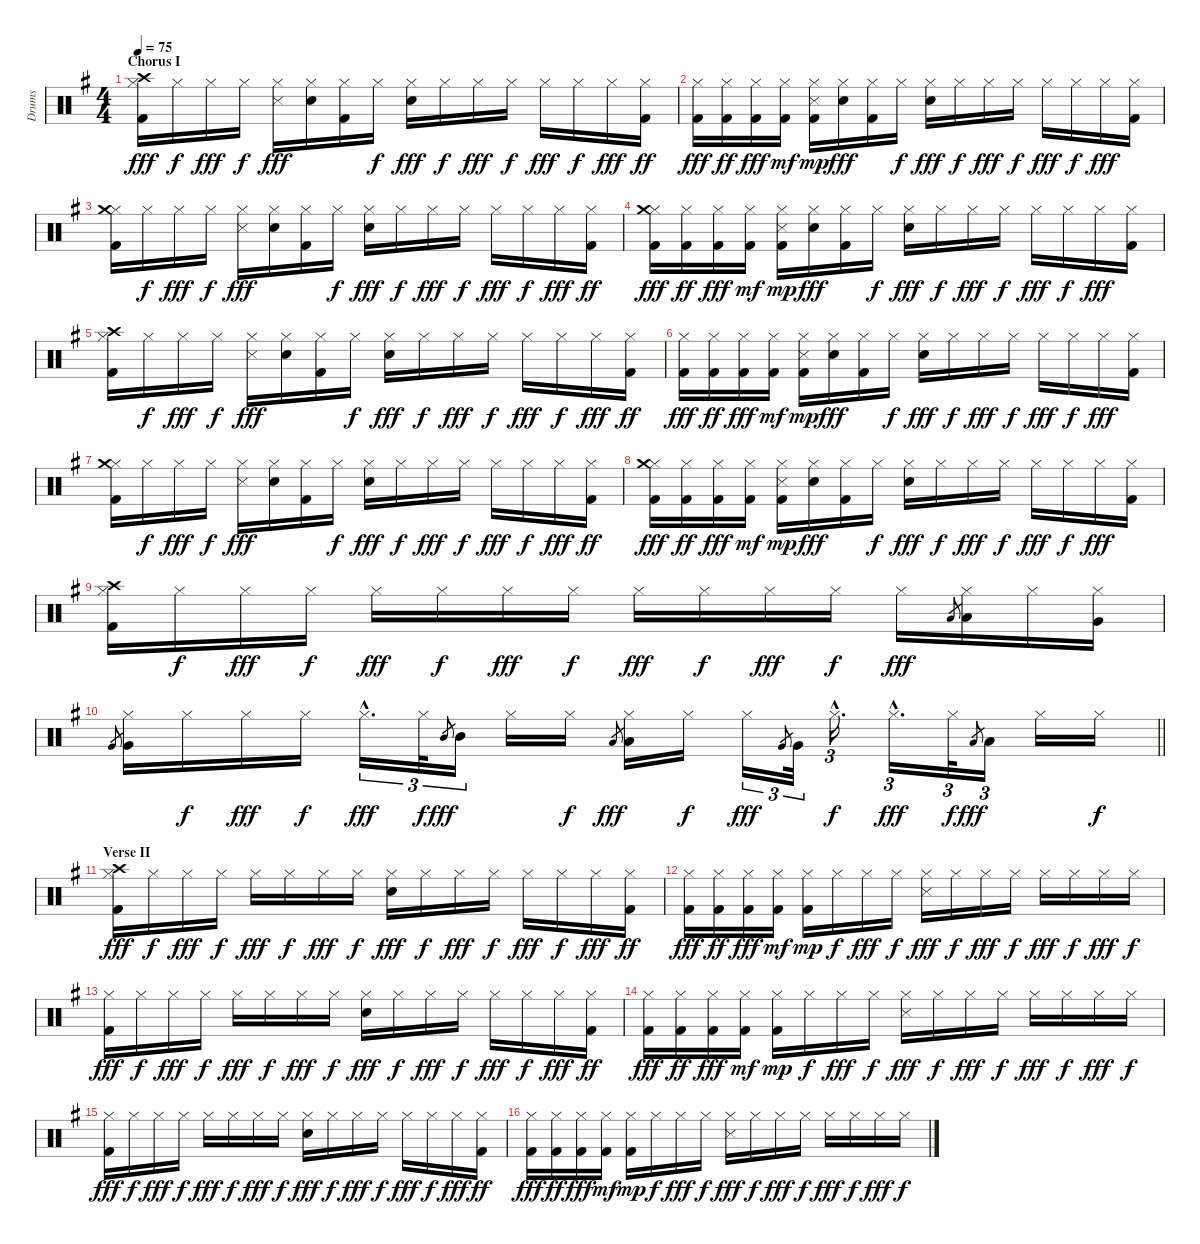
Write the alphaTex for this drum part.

\track ("Drums" "Drums") {instrument percussion}
\staff {score}
\articulation defaults
\ts (4 4)
\section ("" "Chorus I")
\tempo 75
\clef neutral
\ks g
("Hi-Hat (closed)" "Crash high (hit)" "Kick (hit) 2").16{dy fff} "Hi-Hat (closed)".16{dy f} "Hi-Hat (closed)".16{dy fff} "Hi-Hat (closed)".16{dy f} ("Hi-Hat (closed)" "Snare (side stick) 3").16{dy fff} ("Hi-Hat (closed)" "Snare (hit) 2").16 ("Hi-Hat (closed)" "Kick (hit) 2").16 "Hi-Hat (closed)".16{dy f} ("Hi-Hat (closed)" "Snare (hit) 2").16{dy fff} "Hi-Hat (closed)".16{dy f} "Hi-Hat (closed)".16{dy fff} "Hi-Hat (closed)".16{dy f} "Hi-Hat (closed)".16{dy fff} "Hi-Hat (closed)".16{dy f} "Hi-Hat (closed)".16{dy fff} ("Hi-Hat (closed)" "Kick (hit) 2").16{dy ff} |
("Hi-Hat (closed)" "Kick (hit) 2").16{dy fff} ("Hi-Hat (closed)" "Kick (hit) 2").16{dy ff} ("Hi-Hat (closed)" "Kick (hit) 2").16{dy fff} ("Hi-Hat (closed)" "Kick (hit) 2").16{dy mf} ("Hi-Hat (closed)" "Snare (side stick) 3" "Kick (hit) 2").16{dy mp} ("Hi-Hat (closed)" "Snare (hit) 2").16{dy fff} ("Hi-Hat (closed)" "Kick (hit) 2").16 "Hi-Hat (closed)".16{dy f} ("Hi-Hat (closed)" "Snare (hit) 2").16{dy fff} "Hi-Hat (closed)".16{dy f} "Hi-Hat (closed)".16{dy fff} "Hi-Hat (closed)".16{dy f} "Hi-Hat (closed)".16{dy fff} "Hi-Hat (closed)".16{dy f} "Hi-Hat (closed)".16{dy fff} ("Hi-Hat (closed)" "Kick (hit) 2").16 |
("Hi-Hat (closed)" "Crash medium (hit)" "Kick (hit) 2").16 "Hi-Hat (closed)".16{dy f} "Hi-Hat (closed)".16{dy fff} "Hi-Hat (closed)".16{dy f} ("Hi-Hat (closed)" "Snare (side stick) 3").16{dy fff} ("Hi-Hat (closed)" "Snare (hit) 2").16 ("Hi-Hat (closed)" "Kick (hit) 2").16 "Hi-Hat (closed)".16{dy f} ("Hi-Hat (closed)" "Snare (hit) 2").16{dy fff} "Hi-Hat (closed)".16{dy f} "Hi-Hat (closed)".16{dy fff} "Hi-Hat (closed)".16{dy f} "Hi-Hat (closed)".16{dy fff} "Hi-Hat (closed)".16{dy f} "Hi-Hat (closed)".16{dy fff} ("Hi-Hat (closed)" "Kick (hit) 2").16{dy ff} |
("Hi-Hat (closed)" "Crash medium (hit)" "Kick (hit) 2").16{dy fff} ("Hi-Hat (closed)" "Kick (hit) 2").16{dy ff} ("Hi-Hat (closed)" "Kick (hit) 2").16{dy fff} ("Hi-Hat (closed)" "Kick (hit) 2").16{dy mf} ("Hi-Hat (closed)" "Snare (side stick) 3" "Kick (hit) 2").16{dy mp} ("Hi-Hat (closed)" "Snare (hit) 2").16{dy fff} ("Hi-Hat (closed)" "Kick (hit) 2").16 "Hi-Hat (closed)".16{dy f} ("Hi-Hat (closed)" "Snare (hit) 2").16{dy fff} "Hi-Hat (closed)".16{dy f} "Hi-Hat (closed)".16{dy fff} "Hi-Hat (closed)".16{dy f} "Hi-Hat (closed)".16{dy fff} "Hi-Hat (closed)".16{dy f} "Hi-Hat (closed)".16{dy fff} ("Hi-Hat (closed)" "Kick (hit) 2").16 |
("Hi-Hat (closed)" "Crash high (hit)" "Kick (hit) 2").16 "Hi-Hat (closed)".16{dy f} "Hi-Hat (closed)".16{dy fff} "Hi-Hat (closed)".16{dy f} ("Hi-Hat (closed)" "Snare (side stick) 3").16{dy fff} ("Hi-Hat (closed)" "Snare (hit) 2").16 ("Hi-Hat (closed)" "Kick (hit) 2").16 "Hi-Hat (closed)".16{dy f} ("Hi-Hat (closed)" "Snare (hit) 2").16{dy fff} "Hi-Hat (closed)".16{dy f} "Hi-Hat (closed)".16{dy fff} "Hi-Hat (closed)".16{dy f} "Hi-Hat (closed)".16{dy fff} "Hi-Hat (closed)".16{dy f} "Hi-Hat (closed)".16{dy fff} ("Hi-Hat (closed)" "Kick (hit) 2").16{dy ff} |
("Hi-Hat (closed)" "Kick (hit) 2").16{dy fff} ("Hi-Hat (closed)" "Kick (hit) 2").16{dy ff} ("Hi-Hat (closed)" "Kick (hit) 2").16{dy fff} ("Hi-Hat (closed)" "Kick (hit) 2").16{dy mf} ("Hi-Hat (closed)" "Snare (side stick) 3" "Kick (hit) 2").16{dy mp} ("Hi-Hat (closed)" "Snare (hit) 2").16{dy fff} ("Hi-Hat (closed)" "Kick (hit) 2").16 "Hi-Hat (closed)".16{dy f} ("Hi-Hat (closed)" "Snare (hit) 2").16{dy fff} "Hi-Hat (closed)".16{dy f} "Hi-Hat (closed)".16{dy fff} "Hi-Hat (closed)".16{dy f} "Hi-Hat (closed)".16{dy fff} "Hi-Hat (closed)".16{dy f} "Hi-Hat (closed)".16{dy fff} ("Hi-Hat (closed)" "Kick (hit) 2").16 |
("Hi-Hat (closed)" "Crash medium (hit)" "Kick (hit) 2").16 "Hi-Hat (closed)".16{dy f} "Hi-Hat (closed)".16{dy fff} "Hi-Hat (closed)".16{dy f} ("Hi-Hat (closed)" "Snare (side stick) 3").16{dy fff} ("Hi-Hat (closed)" "Snare (hit) 2").16 ("Hi-Hat (closed)" "Kick (hit) 2").16 "Hi-Hat (closed)".16{dy f} ("Hi-Hat (closed)" "Snare (hit) 2").16{dy fff} "Hi-Hat (closed)".16{dy f} "Hi-Hat (closed)".16{dy fff} "Hi-Hat (closed)".16{dy f} "Hi-Hat (closed)".16{dy fff} "Hi-Hat (closed)".16{dy f} "Hi-Hat (closed)".16{dy fff} ("Hi-Hat (closed)" "Kick (hit) 2").16{dy ff} |
("Hi-Hat (closed)" "Crash medium (hit)" "Kick (hit) 2").16{dy fff} ("Hi-Hat (closed)" "Kick (hit) 2").16{dy ff} ("Hi-Hat (closed)" "Kick (hit) 2").16{dy fff} ("Hi-Hat (closed)" "Kick (hit) 2").16{dy mf} ("Hi-Hat (closed)" "Snare (side stick) 3" "Kick (hit) 2").16{dy mp} ("Hi-Hat (closed)" "Snare (hit) 2").16{dy fff} ("Hi-Hat (closed)" "Kick (hit) 2").16 "Hi-Hat (closed)".16{dy f} ("Hi-Hat (closed)" "Snare (hit) 2").16{dy fff} "Hi-Hat (closed)".16{dy f} "Hi-Hat (closed)".16{dy fff} "Hi-Hat (closed)".16{dy f} "Hi-Hat (closed)".16{dy fff} "Hi-Hat (closed)".16{dy f} "Hi-Hat (closed)".16{dy fff} ("Hi-Hat (closed)" "Kick (hit) 2").16 |
("Hi-Hat (closed)" "Crash high (hit)" "Kick (hit) 2").16 "Hi-Hat (closed)".16{dy f} "Hi-Hat (closed)".16{dy fff} "Hi-Hat (closed)".16{dy f} "Hi-Hat (closed)".16{dy fff} "Hi-Hat (closed)".16{dy f} "Hi-Hat (closed)".16{dy fff} "Hi-Hat (closed)".16{dy f} "Hi-Hat (closed)".16{dy fff} "Hi-Hat (closed)".16{dy f} "Hi-Hat (closed)".16{dy fff} "Hi-Hat (closed)".16{dy f} "Hi-Hat (closed)".16{dy fff} "Low Tom (hit)".8{gr} ("Hi-Hat (closed)" "Low Tom (hit)").16 "Hi-Hat (closed)".16 ("Hi-Hat (closed)" "Very Low Tom (hit)").16 |
\barLineRight lightlight "Very Low Tom (hit)".8{gr}
("Hi-Hat (closed)" "Very Low Tom (hit)").16 "Hi-Hat (closed)".16{dy f} "Hi-Hat (closed)".16{dy fff} "Hi-Hat (closed)".16{dy f} "Hi-Hat (closed)"{hac}.16{d tu (3 2) dy fff} "Hi-Hat (closed)".32{tu (3 2) dy f} "Mid Tom (hit)".8{gr dy fff} "Mid Tom (hit)".16{tu (3 2)} "Hi-Hat (closed)".16 "Hi-Hat (closed)".16{dy f} "Low Tom (hit)".8{gr dy fff} ("Hi-Hat (closed)" "Low Tom (hit)").16 "Hi-Hat (closed)".16{dy f} "Hi-Hat (closed)".16{tu (3 2) dy fff} "Very Low Tom (hit)".8{gr} "Very Low Tom (hit)".32{tu (3 2)} "Hi-Hat (closed)"{hac}.16{d tu (3 2) dy f} "Hi-Hat (closed)"{hac}.16{d tu (3 2) dy fff} "Hi-Hat (closed)".32{tu (3 2) dy f} "Low Floor Tom (hit)".8{gr dy fff} "Low Floor Tom (hit)".16{tu (3 2)} "Hi-Hat (closed)".16 "Hi-Hat (closed)".16{dy f} |
\section ("" "Verse II")
("Hi-Hat (closed)" "Crash high (hit)" "Kick (hit) 2").16{dy fff} "Hi-Hat (closed)".16{dy f} "Hi-Hat (closed)".16{dy fff} "Hi-Hat (closed)".16{dy f} "Hi-Hat (closed)".16{dy fff} "Hi-Hat (closed)".16{dy f} "Hi-Hat (closed)".16{dy fff} "Hi-Hat (closed)".16{dy f} ("Hi-Hat (closed)" "Snare (hit) 2").16{dy fff} "Hi-Hat (closed)".16{dy f} "Hi-Hat (closed)".16{dy fff} "Hi-Hat (closed)".16{dy f} "Hi-Hat (closed)".16{dy fff} "Hi-Hat (closed)".16{dy f} "Hi-Hat (closed)".16{dy fff} ("Hi-Hat (closed)" "Kick (hit) 2").16{dy ff} |
("Hi-Hat (closed)" "Kick (hit) 2").16{dy fff} ("Hi-Hat (closed)" "Kick (hit) 2").16{dy ff} ("Hi-Hat (closed)" "Kick (hit) 2").16{dy fff} ("Hi-Hat (closed)" "Kick (hit) 2").16{dy mf} ("Hi-Hat (closed)" "Kick (hit) 2").16{dy mp} "Hi-Hat (closed)".16{dy f} "Hi-Hat (closed)".16{dy fff} "Hi-Hat (closed)".16{dy f} ("Hi-Hat (closed)" "Snare (side stick) 3").16{dy fff} "Hi-Hat (closed)".16{dy f} "Hi-Hat (closed)".16{dy fff} "Hi-Hat (closed)".16{dy f} "Hi-Hat (closed)".16{dy fff} "Hi-Hat (closed)".16{dy f} "Hi-Hat (closed)".16{dy fff} "Hi-Hat (closed)".16{dy f} |
("Hi-Hat (closed)" "Kick (hit) 2").16{dy fff} "Hi-Hat (closed)".16{dy f} "Hi-Hat (closed)".16{dy fff} "Hi-Hat (closed)".16{dy f} "Hi-Hat (closed)".16{dy fff} "Hi-Hat (closed)".16{dy f} "Hi-Hat (closed)".16{dy fff} "Hi-Hat (closed)".16{dy f} ("Hi-Hat (closed)" "Snare (hit) 2").16{dy fff} "Hi-Hat (closed)".16{dy f} "Hi-Hat (closed)".16{dy fff} "Hi-Hat (closed)".16{dy f} "Hi-Hat (closed)".16{dy fff} "Hi-Hat (closed)".16{dy f} "Hi-Hat (closed)".16{dy fff} ("Hi-Hat (closed)" "Kick (hit) 2").16{dy ff} |
("Hi-Hat (closed)" "Kick (hit) 2").16{dy fff} ("Hi-Hat (closed)" "Kick (hit) 2").16{dy ff} ("Hi-Hat (closed)" "Kick (hit) 2").16{dy fff} ("Hi-Hat (closed)" "Kick (hit) 2").16{dy mf} ("Hi-Hat (closed)" "Kick (hit) 2").16{dy mp} "Hi-Hat (closed)".16{dy f} "Hi-Hat (closed)".16{dy fff} "Hi-Hat (closed)".16{dy f} ("Hi-Hat (closed)" "Snare (side stick) 3").16{dy fff} "Hi-Hat (closed)".16{dy f} "Hi-Hat (closed)".16{dy fff} "Hi-Hat (closed)".16{dy f} "Hi-Hat (closed)".16{dy fff} "Hi-Hat (closed)".16{dy f} "Hi-Hat (closed)".16{dy fff} "Hi-Hat (closed)".16{dy f} |
("Hi-Hat (closed)" "Kick (hit) 2").16{dy fff} "Hi-Hat (closed)".16{dy f} "Hi-Hat (closed)".16{dy fff} "Hi-Hat (closed)".16{dy f} "Hi-Hat (closed)".16{dy fff} "Hi-Hat (closed)".16{dy f} "Hi-Hat (closed)".16{dy fff} "Hi-Hat (closed)".16{dy f} ("Hi-Hat (closed)" "Snare (hit) 2").16{dy fff} "Hi-Hat (closed)".16{dy f} "Hi-Hat (closed)".16{dy fff} "Hi-Hat (closed)".16{dy f} "Hi-Hat (closed)".16{dy fff} "Hi-Hat (closed)".16{dy f} "Hi-Hat (closed)".16{dy fff} ("Hi-Hat (closed)" "Kick (hit) 2").16{dy ff} |
("Hi-Hat (closed)" "Kick (hit) 2").16{dy fff} ("Hi-Hat (closed)" "Kick (hit) 2").16{dy ff} ("Hi-Hat (closed)" "Kick (hit) 2").16{dy fff} ("Hi-Hat (closed)" "Kick (hit) 2").16{dy mf} ("Hi-Hat (closed)" "Kick (hit) 2").16{dy mp} "Hi-Hat (closed)".16{dy f} "Hi-Hat (closed)".16{dy fff} "Hi-Hat (closed)".16{dy f} ("Hi-Hat (closed)" "Snare (side stick) 3").16{dy fff} "Hi-Hat (closed)".16{dy f} "Hi-Hat (closed)".16{dy fff} "Hi-Hat (closed)".16{dy f} "Hi-Hat (closed)".16{dy fff} "Hi-Hat (closed)".16{dy f} "Hi-Hat (closed)".16{dy fff} "Hi-Hat (closed)".16{dy f}
